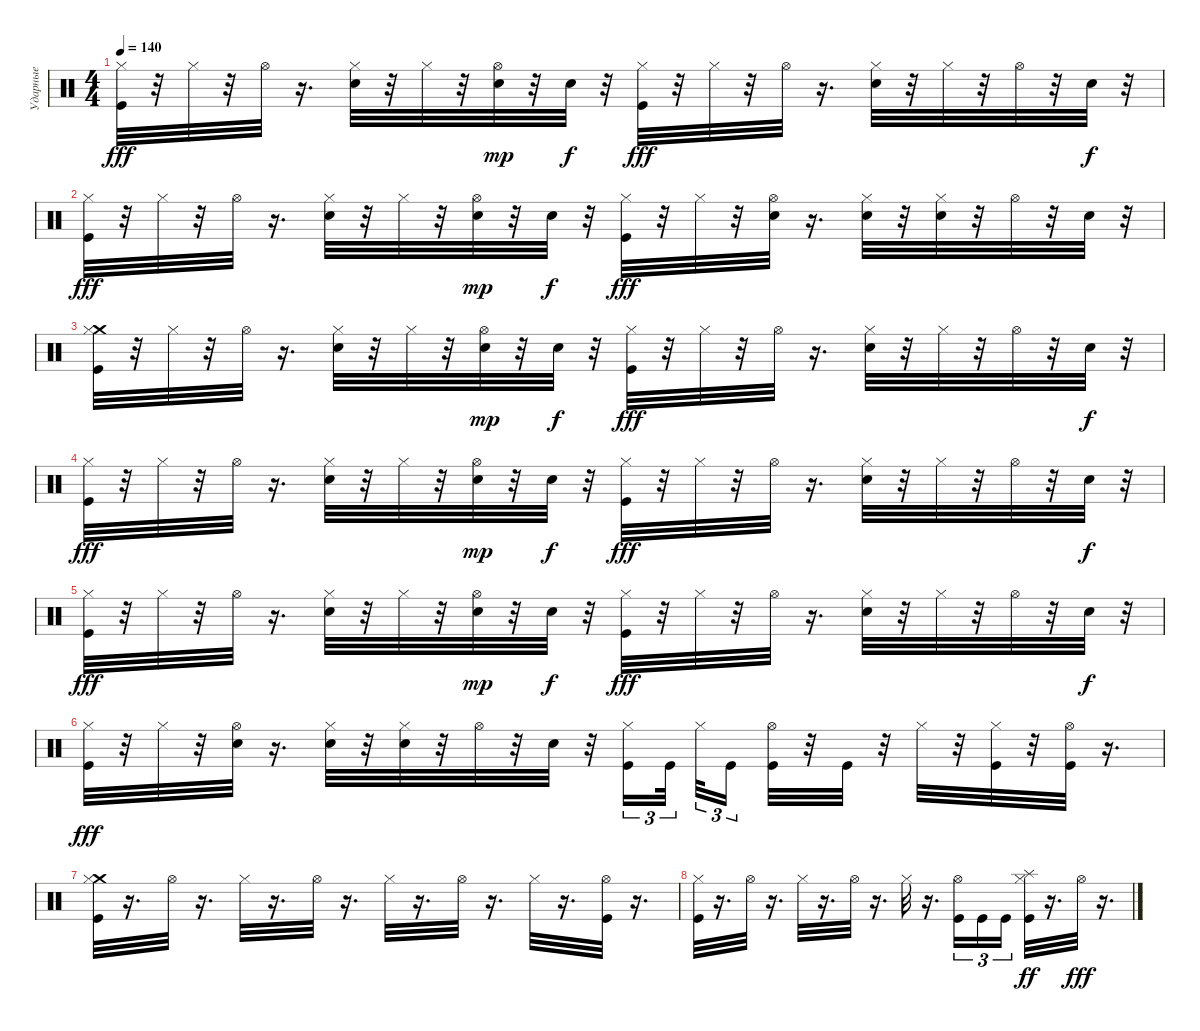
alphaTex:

\track ("Ударные" "Ударные") {instrument percussion}
\staff {score}
\articulation defaults
\ts (4 4)
\tempo 140
\clef neutral
\ks c
("Hi-Hat (closed)" "Kick (hit)").32{dy fff} r.32 "Hi-Hat (closed)".32 r.32 "Hi-Hat (open)".32 r.16{d} ("Electric Snare (hit)" "Hi-Hat (closed)").32 r.32 "Hi-Hat (closed)".32 r.32 ("Hi-Hat (open)" "Electric Snare (hit)").32{dy mp} r.32 "Electric Snare (hit)".32{dy f} r.32 ("Kick (hit)" "Hi-Hat (closed)").32{dy fff} r.32 "Hi-Hat (closed)".32 r.32 "Hi-Hat (open)".32 r.16{d} ("Electric Snare (hit)" "Hi-Hat (closed)").32 r.32 "Hi-Hat (closed)".32 r.32 "Hi-Hat (open)".32 r.32 "Electric Snare (hit)".32{dy f} r.32 |
("Hi-Hat (closed)" "Kick (hit)").32{dy fff} r.32 "Hi-Hat (closed)".32 r.32 "Hi-Hat (open)".32 r.16{d} ("Electric Snare (hit)" "Hi-Hat (closed)").32 r.32 "Hi-Hat (closed)".32 r.32 ("Hi-Hat (open)" "Electric Snare (hit)").32{dy mp} r.32 "Electric Snare (hit)".32{dy f} r.32 ("Kick (hit)" "Hi-Hat (closed)").32{dy fff} r.32 "Hi-Hat (closed)".32 r.32 ("Hi-Hat (open)" "Electric Snare (hit)").32 r.16{d} ("Hi-Hat (closed)" "Electric Snare (hit)").32 r.32 ("Hi-Hat (closed)" "Electric Snare (hit)").32 r.32 "Hi-Hat (open)".32 r.32 "Electric Snare (hit)".32 r.32 |
("Crash medium (hit)" "Kick (hit)" "Hi-Hat (closed)").32 r.32 "Hi-Hat (closed)".32 r.32 "Hi-Hat (open)".32 r.16{d} ("Electric Snare (hit)" "Hi-Hat (closed)").32 r.32 "Hi-Hat (closed)".32 r.32 ("Hi-Hat (open)" "Electric Snare (hit)").32{dy mp} r.32 "Electric Snare (hit)".32{dy f} r.32 ("Kick (hit)" "Hi-Hat (closed)").32{dy fff} r.32 "Hi-Hat (closed)".32 r.32 "Hi-Hat (open)".32 r.16{d} ("Electric Snare (hit)" "Hi-Hat (closed)").32 r.32 "Hi-Hat (closed)".32 r.32 "Hi-Hat (open)".32 r.32 "Electric Snare (hit)".32{dy f} r.32 |
("Hi-Hat (closed)" "Kick (hit)").32{dy fff} r.32 "Hi-Hat (closed)".32 r.32 "Hi-Hat (open)".32 r.16{d} ("Electric Snare (hit)" "Hi-Hat (closed)").32 r.32 "Hi-Hat (closed)".32 r.32 ("Hi-Hat (open)" "Electric Snare (hit)").32{dy mp} r.32 "Electric Snare (hit)".32{dy f} r.32 ("Kick (hit)" "Hi-Hat (closed)").32{dy fff} r.32 "Hi-Hat (closed)".32 r.32 "Hi-Hat (open)".32 r.16{d} ("Electric Snare (hit)" "Hi-Hat (closed)").32 r.32 "Hi-Hat (closed)".32 r.32 "Hi-Hat (open)".32 r.32 "Electric Snare (hit)".32{dy f} r.32 |
("Hi-Hat (closed)" "Kick (hit)").32{dy fff} r.32 "Hi-Hat (closed)".32 r.32 "Hi-Hat (open)".32 r.16{d} ("Electric Snare (hit)" "Hi-Hat (closed)").32 r.32 "Hi-Hat (closed)".32 r.32 ("Hi-Hat (open)" "Electric Snare (hit)").32{dy mp} r.32 "Electric Snare (hit)".32{dy f} r.32 ("Kick (hit)" "Hi-Hat (closed)").32{dy fff} r.32 "Hi-Hat (closed)".32 r.32 "Hi-Hat (open)".32 r.16{d} ("Electric Snare (hit)" "Hi-Hat (closed)").32 r.32 "Hi-Hat (closed)".32 r.32 "Hi-Hat (open)".32 r.32 "Electric Snare (hit)".32{dy f} r.32 |
("Hi-Hat (closed)" "Kick (hit)").32{dy fff} r.32 "Hi-Hat (closed)".32 r.32 ("Hi-Hat (open)" "Electric Snare (hit)").32 r.16{d} ("Hi-Hat (closed)" "Electric Snare (hit)").32 r.32 ("Hi-Hat (closed)" "Electric Snare (hit)").32 r.32 "Hi-Hat (open)".32 r.32 "Electric Snare (hit)".32 r.32 ("Hi-Hat (closed)" "Kick (hit)").16{tu (3 2)} "Kick (hit)".32{tu (3 2) beam splitsecondary} "Hi-Hat (closed)".32{tu (3 2)} "Kick (hit)".16{tu (3 2) beam splitsecondary} ("Hi-Hat (open)" "Kick (hit)").32 r.32 "Kick (hit)".32 r.32 "Hi-Hat (closed)".32 r.32 ("Hi-Hat (closed)" "Kick (hit)").32 r.32 ("Hi-Hat (open)" "Kick (hit)").32 r.16{d} |
("Crash medium (hit)" "Kick (hit)" "Hi-Hat (closed)").32 r.16{d} "Hi-Hat (open)".32 r.16{d} "Hi-Hat (closed)".32 r.16{d} "Hi-Hat (open)".32 r.16{d} "Hi-Hat (closed)".32 r.16{d} "Hi-Hat (open)".32 r.16{d} "Hi-Hat (closed)".32 r.16{d} ("Kick (hit)" "Hi-Hat (open)").32 r.16{d} |
("Kick (hit)" "Hi-Hat (closed)").32 r.16{d} "Hi-Hat (open)".32 r.16{d} "Hi-Hat (closed)".32 r.16{d} "Hi-Hat (open)".32 r.16{d} "Hi-Hat (closed)".32 r.16{d} ("Hi-Hat (open)" "Kick (hit)").16{tu (3 2)} "Kick (hit)".16{tu (3 2)} "Kick (hit)".16{tu (3 2)} ("Hi-Hat (closed)" "Kick (hit)" "Splash (hit)").32{dy ff} r.16{d} "Hi-Hat (open)".32{dy fff} r.16{d}
